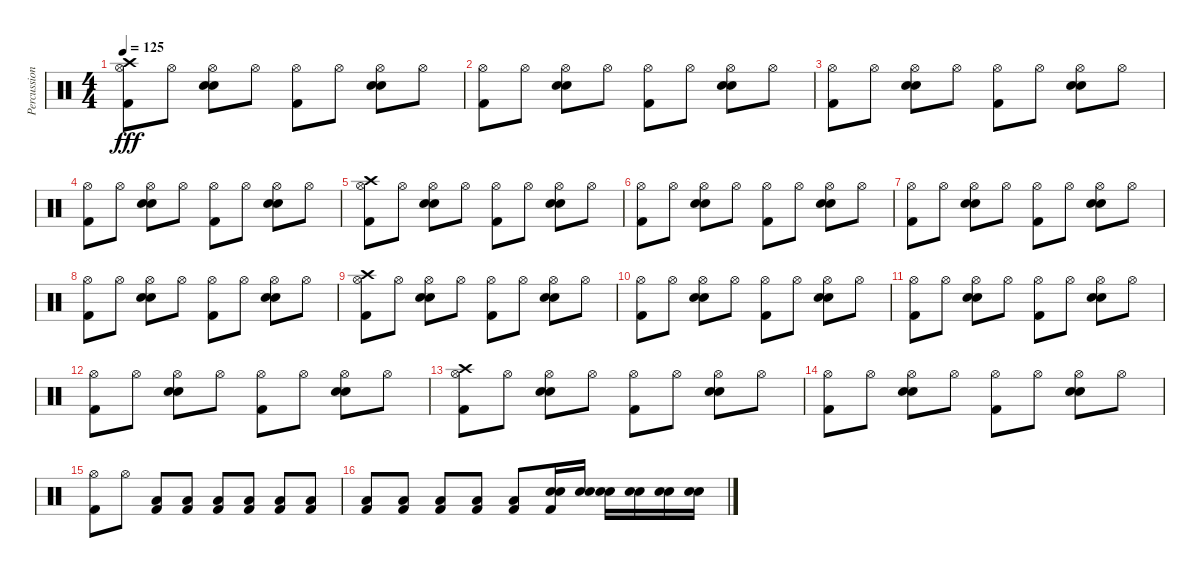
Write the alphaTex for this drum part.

\track ("Percussion" "Percussion") {instrument percussion}
\staff {score}
\articulation defaults
\ts (4 4)
\tempo 125
\clef neutral
\ks c
("Crash high (hit)" "Hi-Hat (open)" "Kick (hit) 2").8{dy fff} "Hi-Hat (open)".8 ("Electric Snare (hit)" "Snare (hit) 2" "Hi-Hat (open)").8 "Hi-Hat (open)".8 ("Hi-Hat (open)" "Kick (hit) 2").8 "Hi-Hat (open)".8 ("Electric Snare (hit)" "Snare (hit) 2" "Hi-Hat (open)").8 "Hi-Hat (open)".8 |
("Hi-Hat (open)" "Kick (hit) 2").8 "Hi-Hat (open)".8 ("Electric Snare (hit)" "Snare (hit) 2" "Hi-Hat (open)").8 "Hi-Hat (open)".8 ("Hi-Hat (open)" "Kick (hit) 2").8 "Hi-Hat (open)".8 ("Electric Snare (hit)" "Snare (hit) 2" "Hi-Hat (open)").8 "Hi-Hat (open)".8 |
("Hi-Hat (open)" "Kick (hit) 2").8 "Hi-Hat (open)".8 ("Electric Snare (hit)" "Snare (hit) 2" "Hi-Hat (open)").8 "Hi-Hat (open)".8 ("Hi-Hat (open)" "Kick (hit) 2").8 "Hi-Hat (open)".8 ("Electric Snare (hit)" "Snare (hit) 2" "Hi-Hat (open)").8 "Hi-Hat (open)".8 |
("Hi-Hat (open)" "Kick (hit) 2").8 "Hi-Hat (open)".8 ("Electric Snare (hit)" "Snare (hit) 2" "Hi-Hat (open)").8 "Hi-Hat (open)".8 ("Hi-Hat (open)" "Kick (hit) 2").8 "Hi-Hat (open)".8 ("Electric Snare (hit)" "Snare (hit) 2" "Hi-Hat (open)").8 "Hi-Hat (open)".8 |
("Crash high (hit)" "Hi-Hat (open)" "Kick (hit) 2").8 "Hi-Hat (open)".8 ("Electric Snare (hit)" "Snare (hit) 2" "Hi-Hat (open)").8 "Hi-Hat (open)".8 ("Hi-Hat (open)" "Kick (hit) 2").8 "Hi-Hat (open)".8 ("Electric Snare (hit)" "Snare (hit) 2" "Hi-Hat (open)").8 "Hi-Hat (open)".8 |
("Hi-Hat (open)" "Kick (hit) 2").8 "Hi-Hat (open)".8 ("Electric Snare (hit)" "Snare (hit) 2" "Hi-Hat (open)").8 "Hi-Hat (open)".8 ("Hi-Hat (open)" "Kick (hit) 2").8 "Hi-Hat (open)".8 ("Electric Snare (hit)" "Snare (hit) 2" "Hi-Hat (open)").8 "Hi-Hat (open)".8 |
("Hi-Hat (open)" "Kick (hit) 2").8 "Hi-Hat (open)".8 ("Electric Snare (hit)" "Snare (hit) 2" "Hi-Hat (open)").8 "Hi-Hat (open)".8 ("Hi-Hat (open)" "Kick (hit) 2").8 "Hi-Hat (open)".8 ("Electric Snare (hit)" "Snare (hit) 2" "Hi-Hat (open)").8 "Hi-Hat (open)".8 |
("Hi-Hat (open)" "Kick (hit) 2").8 "Hi-Hat (open)".8 ("Electric Snare (hit)" "Snare (hit) 2" "Hi-Hat (open)").8 "Hi-Hat (open)".8 ("Hi-Hat (open)" "Kick (hit) 2").8 "Hi-Hat (open)".8 ("Electric Snare (hit)" "Snare (hit) 2" "Hi-Hat (open)").8 "Hi-Hat (open)".8 |
("Crash high (hit)" "Hi-Hat (open)" "Kick (hit) 2").8 "Hi-Hat (open)".8 ("Electric Snare (hit)" "Snare (hit) 2" "Hi-Hat (open)").8 "Hi-Hat (open)".8 ("Hi-Hat (open)" "Kick (hit) 2").8 "Hi-Hat (open)".8 ("Electric Snare (hit)" "Snare (hit) 2" "Hi-Hat (open)").8 "Hi-Hat (open)".8 |
("Hi-Hat (open)" "Kick (hit) 2").8 "Hi-Hat (open)".8 ("Electric Snare (hit)" "Snare (hit) 2" "Hi-Hat (open)").8 "Hi-Hat (open)".8 ("Hi-Hat (open)" "Kick (hit) 2").8 "Hi-Hat (open)".8 ("Electric Snare (hit)" "Snare (hit) 2" "Hi-Hat (open)").8 "Hi-Hat (open)".8 |
("Hi-Hat (open)" "Kick (hit) 2").8 "Hi-Hat (open)".8 ("Electric Snare (hit)" "Snare (hit) 2" "Hi-Hat (open)").8 "Hi-Hat (open)".8 ("Hi-Hat (open)" "Kick (hit) 2").8 "Hi-Hat (open)".8 ("Electric Snare (hit)" "Snare (hit) 2" "Hi-Hat (open)").8 "Hi-Hat (open)".8 |
("Hi-Hat (open)" "Kick (hit) 2").8 "Hi-Hat (open)".8 ("Electric Snare (hit)" "Snare (hit) 2" "Hi-Hat (open)").8 "Hi-Hat (open)".8 ("Hi-Hat (open)" "Kick (hit) 2").8 "Hi-Hat (open)".8 ("Electric Snare (hit)" "Snare (hit) 2" "Hi-Hat (open)").8 "Hi-Hat (open)".8 |
("Crash high (hit)" "Hi-Hat (open)" "Kick (hit) 2").8 "Hi-Hat (open)".8 ("Electric Snare (hit)" "Snare (hit) 2" "Hi-Hat (open)").8 "Hi-Hat (open)".8 ("Hi-Hat (open)" "Kick (hit) 2").8 "Hi-Hat (open)".8 ("Electric Snare (hit)" "Snare (hit) 2" "Hi-Hat (open)").8 "Hi-Hat (open)".8 |
("Hi-Hat (open)" "Kick (hit) 2").8 "Hi-Hat (open)".8 ("Electric Snare (hit)" "Snare (hit) 2" "Hi-Hat (open)").8 "Hi-Hat (open)".8 ("Hi-Hat (open)" "Kick (hit) 2").8 "Hi-Hat (open)".8 ("Electric Snare (hit)" "Snare (hit) 2" "Hi-Hat (open)").8 "Hi-Hat (open)".8 |
("Hi-Hat (open)" "Kick (hit) 2").8 "Hi-Hat (open)".8 ("Low Floor Tom (hit)" "Kick (hit) 2").8 ("Low Floor Tom (hit)" "Kick (hit) 2").8 ("Low Floor Tom (hit)" "Kick (hit) 2").8 ("Low Floor Tom (hit)" "Kick (hit) 2").8 ("Low Floor Tom (hit)" "Kick (hit) 2").8 ("Low Floor Tom (hit)" "Kick (hit) 2").8 |
("Low Floor Tom (hit)" "Kick (hit) 2").8 ("Low Floor Tom (hit)" "Kick (hit) 2").8 ("Low Floor Tom (hit)" "Kick (hit) 2").8 ("Low Floor Tom (hit)" "Kick (hit) 2").8 ("Low Floor Tom (hit)" "Kick (hit) 2").8 ("Electric Snare (hit)" "Snare (hit) 2" "Kick (hit) 2").16 ("Electric Snare (hit)" "Snare (hit) 2").16 ("Electric Snare (hit)" "Snare (hit) 2").16 ("Electric Snare (hit)" "Snare (hit) 2").16 ("Electric Snare (hit)" "Snare (hit) 2").16 ("Electric Snare (hit)" "Snare (hit) 2").16
